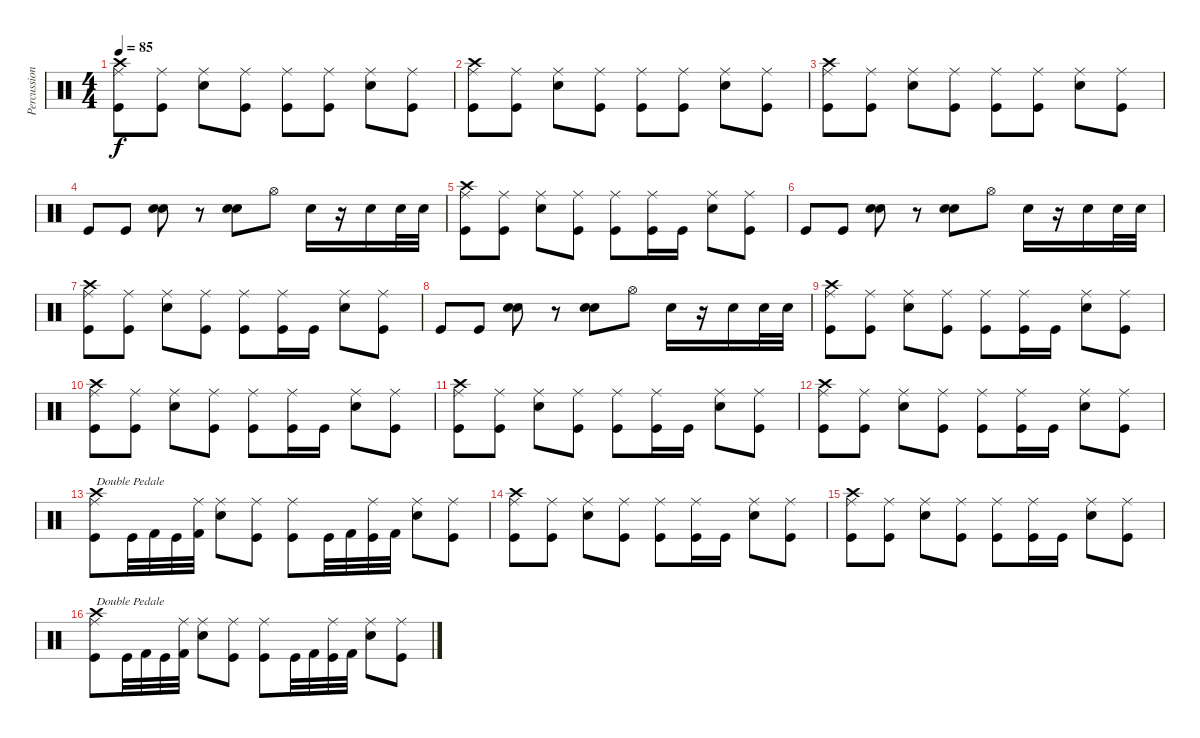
\track ("Percussions" "Percussion") {instrument percussion}
\staff {score}
\articulation defaults
\ts (4 4)
\tempo 85
\clef neutral
\ks c
("Ride (middle)" "Crash high (hit)" "Kick (hit)").8{dy f} ("Ride (middle)" "Kick (hit)").8 ("Ride (middle)" "Electric Snare (hit)").8 ("Ride (middle)" "Kick (hit)").8 ("Ride (middle)" "Kick (hit)").8 ("Ride (middle)" "Kick (hit)").8 ("Ride (middle)" "Electric Snare (hit)").8 ("Ride (middle)" "Kick (hit)").8 |
("Ride (middle)" "Crash high (hit)" "Kick (hit)").8 ("Ride (middle)" "Kick (hit)").8 ("Ride (middle)" "Electric Snare (hit)").8 ("Ride (middle)" "Kick (hit)").8 ("Ride (middle)" "Kick (hit)").8 ("Ride (middle)" "Kick (hit)").8 ("Ride (middle)" "Electric Snare (hit)").8 ("Ride (middle)" "Kick (hit)").8 |
("Ride (middle)" "Crash high (hit)" "Kick (hit)").8 ("Ride (middle)" "Kick (hit)").8 ("Ride (middle)" "Electric Snare (hit)").8 ("Ride (middle)" "Kick (hit)").8 ("Ride (middle)" "Kick (hit)").8 ("Ride (middle)" "Kick (hit)").8 ("Ride (middle)" "Electric Snare (hit)").8 ("Ride (middle)" "Kick (hit)").8 |
"Kick (hit)".8 "Kick (hit)".8 ("Electric Snare (hit)" "Snare (hit) 2").8{bu 120} r.8 ("Electric Snare (hit)" "Snare (hit) 2").8{bu 120} "Hi-Hat (open)".8 "Electric Snare (hit)".16 r.16 "Electric Snare (hit)".16 "Electric Snare (hit)".32 "Electric Snare (hit)".32 |
("Ride (middle)" "Crash high (hit)" "Kick (hit)").8 ("Ride (middle)" "Kick (hit)").8 ("Ride (middle)" "Electric Snare (hit)").8 ("Ride (middle)" "Kick (hit)").8 ("Ride (middle)" "Kick (hit)").8 ("Ride (middle)" "Kick (hit)").16 "Kick (hit)".16 ("Ride (middle)" "Electric Snare (hit)").8 ("Ride (middle)" "Kick (hit)").8 |
"Kick (hit)".8 "Kick (hit)".8 ("Electric Snare (hit)" "Snare (hit) 2").8{bu 120} r.8 ("Electric Snare (hit)" "Snare (hit) 2").8{bu 120} "Hi-Hat (open)".8 "Electric Snare (hit)".16 r.16 "Electric Snare (hit)".16 "Electric Snare (hit)".32 "Electric Snare (hit)".32 |
("Ride (middle)" "Crash high (hit)" "Kick (hit)").8 ("Ride (middle)" "Kick (hit)").8 ("Ride (middle)" "Electric Snare (hit)").8 ("Ride (middle)" "Kick (hit)").8 ("Ride (middle)" "Kick (hit)").8 ("Ride (middle)" "Kick (hit)").16 "Kick (hit)".16 ("Ride (middle)" "Electric Snare (hit)").8 ("Ride (middle)" "Kick (hit)").8 |
"Kick (hit)".8 "Kick (hit)".8 ("Electric Snare (hit)" "Snare (hit) 2").8{bu 120} r.8 ("Electric Snare (hit)" "Snare (hit) 2").8{bu 120} "Hi-Hat (open)".8 "Electric Snare (hit)".16 r.16 "Electric Snare (hit)".16 "Electric Snare (hit)".32 "Electric Snare (hit)".32 |
("Ride (middle)" "Crash high (hit)" "Kick (hit)").8 ("Ride (middle)" "Kick (hit)").8 ("Ride (middle)" "Electric Snare (hit)").8 ("Ride (middle)" "Kick (hit)").8 ("Ride (middle)" "Kick (hit)").8 ("Ride (middle)" "Kick (hit)").16 "Kick (hit)".16 ("Ride (middle)" "Electric Snare (hit)").8 ("Ride (middle)" "Kick (hit)").8 |
("Ride (middle)" "Crash high (hit)" "Kick (hit)").8 ("Ride (middle)" "Kick (hit)").8 ("Ride (middle)" "Electric Snare (hit)").8 ("Ride (middle)" "Kick (hit)").8 ("Ride (middle)" "Kick (hit)").8 ("Ride (middle)" "Kick (hit)").16 "Kick (hit)".16 ("Ride (middle)" "Electric Snare (hit)").8 ("Ride (middle)" "Kick (hit)").8 |
("Ride (middle)" "Crash high (hit)" "Kick (hit)").8 ("Ride (middle)" "Kick (hit)").8 ("Ride (middle)" "Electric Snare (hit)").8 ("Ride (middle)" "Kick (hit)").8 ("Ride (middle)" "Kick (hit)").8 ("Ride (middle)" "Kick (hit)").16 "Kick (hit)".16 ("Ride (middle)" "Electric Snare (hit)").8 ("Ride (middle)" "Kick (hit)").8 |
("Ride (middle)" "Crash high (hit)" "Kick (hit)").8 ("Ride (middle)" "Kick (hit)").8 ("Ride (middle)" "Electric Snare (hit)").8 ("Ride (middle)" "Kick (hit)").8 ("Ride (middle)" "Kick (hit)").8 ("Ride (middle)" "Kick (hit)").16 "Kick (hit)".16 ("Ride (middle)" "Electric Snare (hit)").8 ("Ride (middle)" "Kick (hit)").8 |
("Ride (middle)" "Crash high (hit)" "Kick (hit)").8{txt "Double Pedale"} "Kick (hit)".32 "Kick (hit) 2".32 "Kick (hit)".32 ("Ride (middle)" "Kick (hit) 2").32 ("Ride (middle)" "Electric Snare (hit)").8 ("Ride (middle)" "Kick (hit)").8 ("Ride (middle)" "Kick (hit)").8 "Kick (hit)".32 "Kick (hit) 2".32 ("Ride (middle)" "Kick (hit)").32 "Kick (hit) 2".32 ("Ride (middle)" "Electric Snare (hit)").8 ("Ride (middle)" "Kick (hit)").8 |
("Ride (middle)" "Crash high (hit)" "Kick (hit)").8 ("Ride (middle)" "Kick (hit)").8 ("Ride (middle)" "Electric Snare (hit)").8 ("Ride (middle)" "Kick (hit)").8 ("Ride (middle)" "Kick (hit)").8 ("Ride (middle)" "Kick (hit)").16 "Kick (hit)".16 ("Ride (middle)" "Electric Snare (hit)").8 ("Ride (middle)" "Kick (hit)").8 |
("Ride (middle)" "Crash high (hit)" "Kick (hit)").8 ("Ride (middle)" "Kick (hit)").8 ("Ride (middle)" "Electric Snare (hit)").8 ("Ride (middle)" "Kick (hit)").8 ("Ride (middle)" "Kick (hit)").8 ("Ride (middle)" "Kick (hit)").16 "Kick (hit)".16 ("Ride (middle)" "Electric Snare (hit)").8 ("Ride (middle)" "Kick (hit)").8 |
("Ride (middle)" "Crash high (hit)" "Kick (hit)").8{txt "Double Pedale"} "Kick (hit)".32 "Kick (hit) 2".32 "Kick (hit)".32 ("Ride (middle)" "Kick (hit) 2").32 ("Ride (middle)" "Electric Snare (hit)").8 ("Ride (middle)" "Kick (hit)").8 ("Ride (middle)" "Kick (hit)").8 "Kick (hit)".32 "Kick (hit) 2".32 ("Ride (middle)" "Kick (hit)").32 "Kick (hit) 2".32 ("Ride (middle)" "Electric Snare (hit)").8 ("Ride (middle)" "Kick (hit)").8
